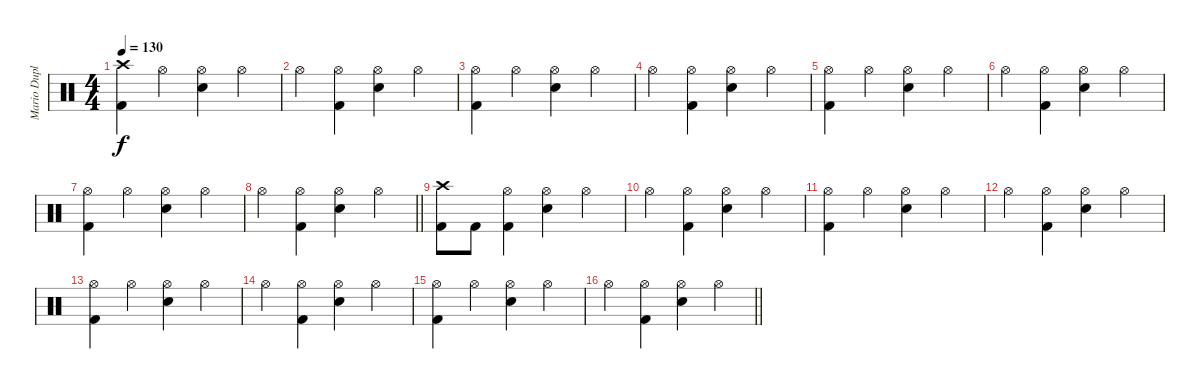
\track ("Mario Duplantier" "Mario Dupl") {instrument percussion}
\staff {score}
\articulation defaults
\ts (4 4)
\section ("" "")
\tempo 130
\clef neutral
\ks c
("Crash high (hit)" "Kick (hit) 2").4{dy f} "Hi-Hat (open)".4 ("Hi-Hat (open)" "Electric Snare (hit)").4 "Hi-Hat (open)".4 |
"Hi-Hat (open)".4 ("Hi-Hat (open)" "Kick (hit) 2").4 ("Hi-Hat (open)" "Electric Snare (hit)").4 "Hi-Hat (open)".4 |
("Hi-Hat (open)" "Kick (hit) 2").4 "Hi-Hat (open)".4 ("Hi-Hat (open)" "Electric Snare (hit)").4 "Hi-Hat (open)".4 |
"Hi-Hat (open)".4 ("Hi-Hat (open)" "Kick (hit) 2").4 ("Hi-Hat (open)" "Electric Snare (hit)").4 "Hi-Hat (open)".4 |
("Hi-Hat (open)" "Kick (hit) 2").4 "Hi-Hat (open)".4 ("Hi-Hat (open)" "Electric Snare (hit)").4 "Hi-Hat (open)".4 |
"Hi-Hat (open)".4 ("Hi-Hat (open)" "Kick (hit) 2").4 ("Hi-Hat (open)" "Electric Snare (hit)").4 "Hi-Hat (open)".4 |
("Hi-Hat (open)" "Kick (hit) 2").4 "Hi-Hat (open)".4 ("Hi-Hat (open)" "Electric Snare (hit)").4 "Hi-Hat (open)".4 |
\barLineRight lightlight "Hi-Hat (open)".4
("Hi-Hat (open)" "Kick (hit) 2").4 ("Hi-Hat (open)" "Electric Snare (hit)").4 "Hi-Hat (open)".4 |
\section ("" "")
("Crash high (hit)" "Kick (hit) 2").8 "Kick (hit) 2".8 ("Hi-Hat (open)" "Kick (hit) 2").4 ("Hi-Hat (open)" "Electric Snare (hit)").4 "Hi-Hat (open)".4 |
"Hi-Hat (open)".4 ("Hi-Hat (open)" "Kick (hit) 2").4 ("Hi-Hat (open)" "Electric Snare (hit)").4 "Hi-Hat (open)".4 |
("Hi-Hat (open)" "Kick (hit) 2").4 "Hi-Hat (open)".4 ("Hi-Hat (open)" "Electric Snare (hit)").4 "Hi-Hat (open)".4 |
"Hi-Hat (open)".4 ("Hi-Hat (open)" "Kick (hit) 2").4 ("Hi-Hat (open)" "Electric Snare (hit)").4 "Hi-Hat (open)".4 |
("Hi-Hat (open)" "Kick (hit) 2").4 "Hi-Hat (open)".4 ("Hi-Hat (open)" "Electric Snare (hit)").4 "Hi-Hat (open)".4 |
"Hi-Hat (open)".4 ("Hi-Hat (open)" "Kick (hit) 2").4 ("Hi-Hat (open)" "Electric Snare (hit)").4 "Hi-Hat (open)".4 |
("Hi-Hat (open)" "Kick (hit) 2").4 "Hi-Hat (open)".4 ("Hi-Hat (open)" "Electric Snare (hit)").4 "Hi-Hat (open)".4 |
\barLineRight lightlight "Hi-Hat (open)".4
("Hi-Hat (open)" "Kick (hit) 2").4 ("Hi-Hat (open)" "Electric Snare (hit)").4 "Hi-Hat (open)".4
